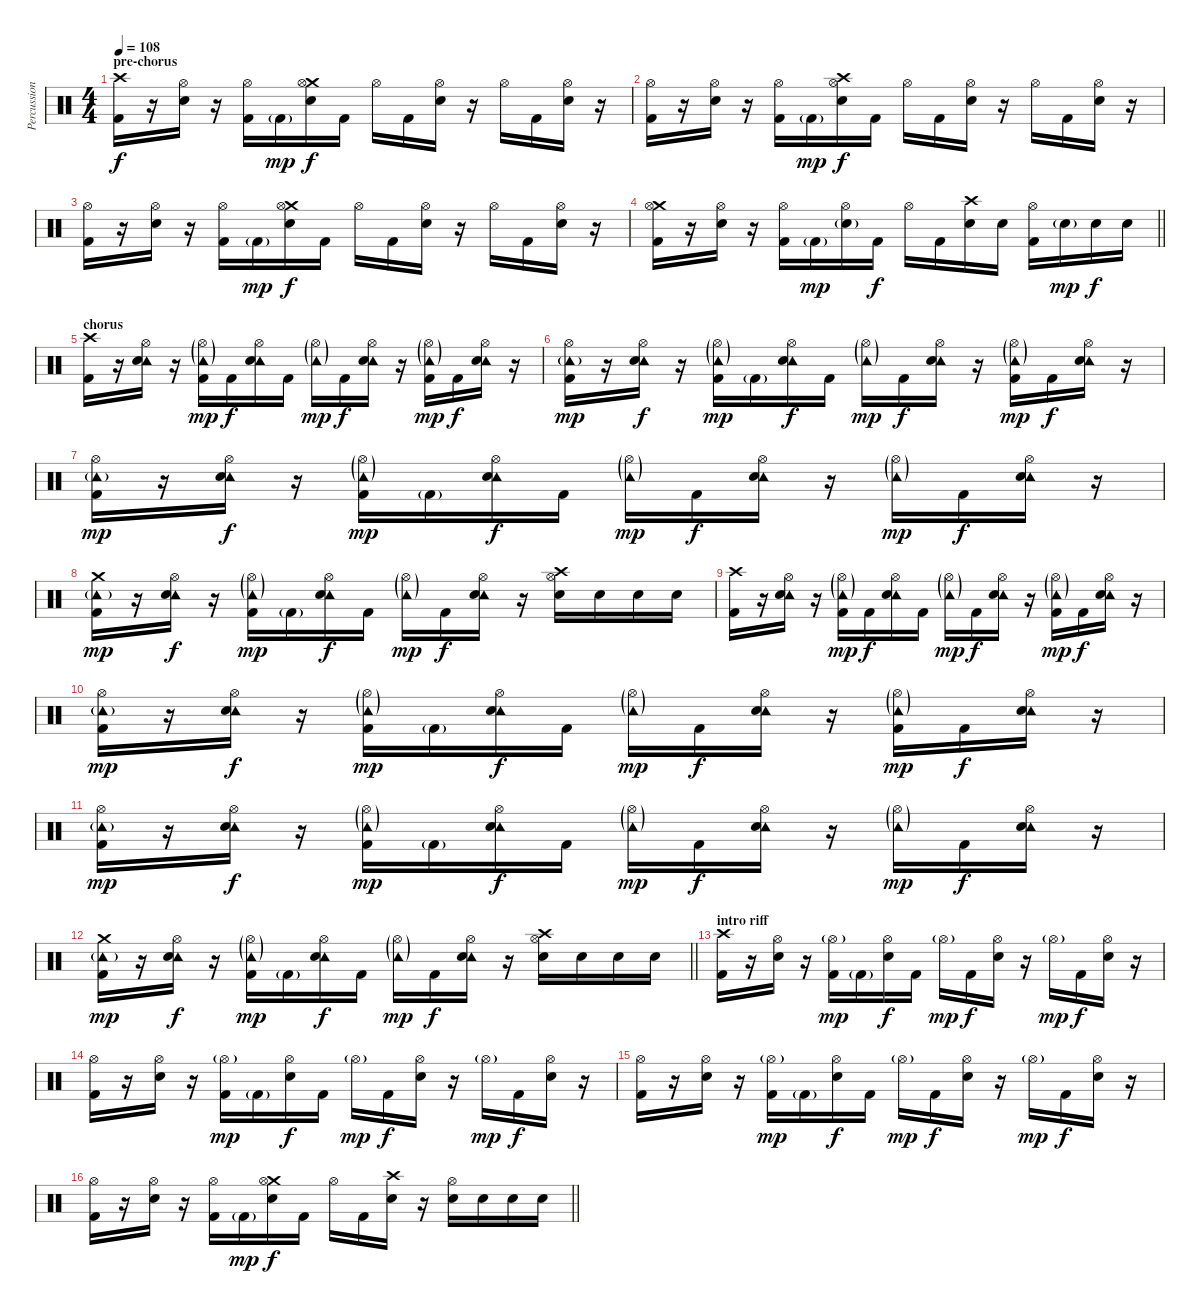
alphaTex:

\track ("Percussion" "Percussion") {instrument percussion}
\staff {score}
\articulation defaults
\ts (4 4)
\section ("" "pre-chorus")
\tempo 108
\clef neutral
\ks c
("Crash high (hit)" "Kick (hit) 2").16{dy f} r.16 ("Hi-Hat (open)" "Electric Snare (hit)").16 r.16 ("Hi-Hat (open)" "Kick (hit) 2").16 "Kick (hit) 2"{g}.16{dy mp} ("Crash medium (hit)" "Hi-Hat (open)" "Electric Snare (hit)").16{dy f} "Kick (hit) 2".16 "Hi-Hat (open)".16 "Kick (hit) 2".16 ("Hi-Hat (open)" "Electric Snare (hit)").16 r.16 "Hi-Hat (open)".16 "Kick (hit) 2".16 ("Hi-Hat (open)" "Electric Snare (hit)").16 r.16 |
("Hi-Hat (open)" "Kick (hit) 2").16 r.16 ("Hi-Hat (open)" "Electric Snare (hit)").16 r.16 ("Hi-Hat (open)" "Kick (hit) 2").16 "Kick (hit) 2"{g}.16{dy mp} ("Crash high (hit)" "Hi-Hat (open)" "Electric Snare (hit)").16{dy f} "Kick (hit) 2".16 "Hi-Hat (open)".16 "Kick (hit) 2".16 ("Hi-Hat (open)" "Electric Snare (hit)").16 r.16 "Hi-Hat (open)".16 "Kick (hit) 2".16 ("Hi-Hat (open)" "Electric Snare (hit)").16 r.16 |
("Hi-Hat (open)" "Kick (hit) 2").16 r.16 ("Hi-Hat (open)" "Electric Snare (hit)").16 r.16 ("Hi-Hat (open)" "Kick (hit) 2").16 "Kick (hit) 2"{g}.16{dy mp} ("Crash medium (hit)" "Hi-Hat (open)" "Electric Snare (hit)").16{dy f} "Kick (hit) 2".16 "Hi-Hat (open)".16 "Kick (hit) 2".16 ("Hi-Hat (open)" "Electric Snare (hit)").16 r.16 "Hi-Hat (open)".16 "Kick (hit) 2".16 ("Hi-Hat (open)" "Electric Snare (hit)").16 r.16 |
\barLineRight lightlight
("Crash medium (hit)" "Hi-Hat (open)" "Kick (hit) 2").16 r.16 ("Hi-Hat (open)" "Electric Snare (hit)").16 r.16 ("Hi-Hat (open)" "Kick (hit) 2").16 "Kick (hit) 2"{g}.16{dy mp} ("Hi-Hat (open)" "Electric Snare (hit)"{g}).16 "Kick (hit) 2".16{dy f} "Hi-Hat (open)".16 "Kick (hit) 2".16 ("Crash high (hit)" "Electric Snare (hit)").16 "Electric Snare (hit)".16 ("Hi-Hat (open)" "Kick (hit) 2").16 "Electric Snare (hit)"{g}.16{dy mp} "Electric Snare (hit)".16{dy f} "Electric Snare (hit)".16 |
\section ("" "chorus")
("Crash high (hit)" "Kick (hit) 2").16 r.16 ("Tambourine (hit)" "Hi-Hat (open)" "Electric Snare (hit)").16 r.16 ("Tambourine (hit)"{g} "Hi-Hat (open)"{g} "Kick (hit) 2").16{dy mp} "Kick (hit) 2".16{dy f} ("Tambourine (hit)" "Hi-Hat (open)" "Electric Snare (hit)").16 "Kick (hit) 2".16 ("Tambourine (hit)"{g} "Hi-Hat (open)"{g}).16{dy mp} "Kick (hit) 2".16{dy f} ("Tambourine (hit)" "Hi-Hat (open)" "Electric Snare (hit)").16 r.16 ("Tambourine (hit)"{g} "Hi-Hat (open)"{g} "Kick (hit) 2").16{dy mp} "Kick (hit) 2".16{dy f} ("Tambourine (hit)" "Hi-Hat (open)" "Electric Snare (hit)").16 r.16 |
("Tambourine (hit)"{g} "Hi-Hat (open)" "Kick (hit) 2").16{dy mp} r.16 ("Tambourine (hit)" "Hi-Hat (open)" "Electric Snare (hit)").16{dy f} r.16 ("Tambourine (hit)"{g} "Hi-Hat (open)"{g} "Kick (hit) 2").16{dy mp} "Kick (hit) 2"{g}.16 ("Tambourine (hit)" "Hi-Hat (open)" "Electric Snare (hit)").16{dy f} "Kick (hit) 2".16 ("Tambourine (hit)"{g} "Hi-Hat (open)"{g}).16{dy mp} "Kick (hit) 2".16{dy f} ("Tambourine (hit)" "Hi-Hat (open)" "Electric Snare (hit)").16 r.16 ("Tambourine (hit)"{g} "Hi-Hat (open)"{g} "Kick (hit) 2").16{dy mp} "Kick (hit) 2".16{dy f} ("Tambourine (hit)" "Hi-Hat (open)" "Electric Snare (hit)").16 r.16 |
("Tambourine (hit)"{g} "Hi-Hat (open)" "Kick (hit) 2").16{dy mp} r.16 ("Tambourine (hit)" "Hi-Hat (open)" "Electric Snare (hit)").16{dy f} r.16 ("Tambourine (hit)"{g} "Hi-Hat (open)"{g} "Kick (hit) 2").16{dy mp} "Kick (hit) 2"{g}.16 ("Tambourine (hit)" "Hi-Hat (open)" "Electric Snare (hit)").16{dy f} "Kick (hit) 2".16 ("Tambourine (hit)"{g} "Hi-Hat (open)"{g}).16{dy mp} "Kick (hit) 2".16{dy f} ("Tambourine (hit)" "Hi-Hat (open)" "Electric Snare (hit)").16 r.16 ("Tambourine (hit)"{g} "Hi-Hat (open)"{g}).16{dy mp} "Kick (hit) 2".16{dy f} ("Tambourine (hit)" "Hi-Hat (open)" "Electric Snare (hit)").16 r.16 |
("Crash medium (hit)" "Tambourine (hit)"{g} "Kick (hit) 2").16{dy mp} r.16 ("Tambourine (hit)" "Hi-Hat (open)" "Electric Snare (hit)").16{dy f} r.16 ("Tambourine (hit)"{g} "Hi-Hat (open)"{g} "Kick (hit) 2").16{dy mp} "Kick (hit) 2"{g}.16 ("Tambourine (hit)" "Hi-Hat (open)" "Electric Snare (hit)").16{dy f} "Kick (hit) 2".16 ("Tambourine (hit)"{g} "Hi-Hat (open)"{g}).16{dy mp} "Kick (hit) 2".16{dy f} ("Tambourine (hit)" "Hi-Hat (open)" "Electric Snare (hit)").16 r.16 ("Crash high (hit)" "Hi-Hat (open)" "Electric Snare (hit)").16 "Electric Snare (hit)".16 "Electric Snare (hit)".16 "Electric Snare (hit)".16 |
("Crash high (hit)" "Kick (hit) 2").16 r.16 ("Tambourine (hit)" "Hi-Hat (open)" "Electric Snare (hit)").16 r.16 ("Tambourine (hit)"{g} "Hi-Hat (open)"{g} "Kick (hit) 2").16{dy mp} "Kick (hit) 2".16{dy f} ("Tambourine (hit)" "Hi-Hat (open)" "Electric Snare (hit)").16 "Kick (hit) 2".16 ("Tambourine (hit)"{g} "Hi-Hat (open)"{g}).16{dy mp} "Kick (hit) 2".16{dy f} ("Tambourine (hit)" "Hi-Hat (open)" "Electric Snare (hit)").16 r.16 ("Tambourine (hit)"{g} "Hi-Hat (open)"{g} "Kick (hit) 2").16{dy mp} "Kick (hit) 2".16{dy f} ("Tambourine (hit)" "Hi-Hat (open)" "Electric Snare (hit)").16 r.16 |
("Tambourine (hit)"{g} "Hi-Hat (open)" "Kick (hit) 2").16{dy mp} r.16 ("Tambourine (hit)" "Hi-Hat (open)" "Electric Snare (hit)").16{dy f} r.16 ("Tambourine (hit)"{g} "Hi-Hat (open)"{g} "Kick (hit) 2").16{dy mp} "Kick (hit) 2"{g}.16 ("Tambourine (hit)" "Hi-Hat (open)" "Electric Snare (hit)").16{dy f} "Kick (hit) 2".16 ("Tambourine (hit)"{g} "Hi-Hat (open)"{g}).16{dy mp} "Kick (hit) 2".16{dy f} ("Tambourine (hit)" "Hi-Hat (open)" "Electric Snare (hit)").16 r.16 ("Tambourine (hit)"{g} "Hi-Hat (open)"{g} "Kick (hit) 2").16{dy mp} "Kick (hit) 2".16{dy f} ("Tambourine (hit)" "Hi-Hat (open)" "Electric Snare (hit)").16 r.16 |
("Tambourine (hit)"{g} "Hi-Hat (open)" "Kick (hit) 2").16{dy mp} r.16 ("Tambourine (hit)" "Hi-Hat (open)" "Electric Snare (hit)").16{dy f} r.16 ("Tambourine (hit)"{g} "Hi-Hat (open)"{g} "Kick (hit) 2").16{dy mp} "Kick (hit) 2"{g}.16 ("Tambourine (hit)" "Hi-Hat (open)" "Electric Snare (hit)").16{dy f} "Kick (hit) 2".16 ("Tambourine (hit)"{g} "Hi-Hat (open)"{g}).16{dy mp} "Kick (hit) 2".16{dy f} ("Tambourine (hit)" "Hi-Hat (open)" "Electric Snare (hit)").16 r.16 ("Tambourine (hit)"{g} "Hi-Hat (open)"{g}).16{dy mp} "Kick (hit) 2".16{dy f} ("Tambourine (hit)" "Hi-Hat (open)" "Electric Snare (hit)").16 r.16 |
\barLineRight lightlight
("Crash medium (hit)" "Tambourine (hit)"{g} "Kick (hit) 2").16{dy mp} r.16 ("Tambourine (hit)" "Hi-Hat (open)" "Electric Snare (hit)").16{dy f} r.16 ("Tambourine (hit)"{g} "Hi-Hat (open)"{g} "Kick (hit) 2").16{dy mp} "Kick (hit) 2"{g}.16 ("Tambourine (hit)" "Hi-Hat (open)" "Electric Snare (hit)").16{dy f} "Kick (hit) 2".16 ("Tambourine (hit)"{g} "Hi-Hat (open)"{g}).16{dy mp} "Kick (hit) 2".16{dy f} ("Tambourine (hit)" "Hi-Hat (open)" "Electric Snare (hit)").16 r.16 ("Crash high (hit)" "Hi-Hat (open)" "Electric Snare (hit)").16 "Electric Snare (hit)".16 "Electric Snare (hit)".16 "Electric Snare (hit)".16 |
\section ("" "intro riff")
("Crash high (hit)" "Kick (hit) 2").16 r.16 ("Hi-Hat (open)" "Electric Snare (hit)").16 r.16 ("Hi-Hat (open)"{g} "Kick (hit) 2").16{dy mp} "Kick (hit) 2"{g}.16 ("Hi-Hat (open)" "Electric Snare (hit)").16{dy f} "Kick (hit) 2".16 "Hi-Hat (open)"{g}.16{dy mp} "Kick (hit) 2".16{dy f} ("Hi-Hat (open)" "Electric Snare (hit)").16 r.16 "Hi-Hat (open)"{g}.16{dy mp} "Kick (hit) 2".16{dy f} ("Hi-Hat (open)" "Electric Snare (hit)").16 r.16 |
("Hi-Hat (open)" "Kick (hit) 2").16 r.16 ("Hi-Hat (open)" "Electric Snare (hit)").16 r.16 ("Hi-Hat (open)"{g} "Kick (hit) 2").16{dy mp} "Kick (hit) 2"{g}.16 ("Hi-Hat (open)" "Electric Snare (hit)").16{dy f} "Kick (hit) 2".16 "Hi-Hat (open)"{g}.16{dy mp} "Kick (hit) 2".16{dy f} ("Hi-Hat (open)" "Electric Snare (hit)").16 r.16 "Hi-Hat (open)"{g}.16{dy mp} "Kick (hit) 2".16{dy f} ("Hi-Hat (open)" "Electric Snare (hit)").16 r.16 |
("Hi-Hat (open)" "Kick (hit) 2").16 r.16 ("Hi-Hat (open)" "Electric Snare (hit)").16 r.16 ("Hi-Hat (open)"{g} "Kick (hit) 2").16{dy mp} "Kick (hit) 2"{g}.16 ("Hi-Hat (open)" "Electric Snare (hit)").16{dy f} "Kick (hit) 2".16 "Hi-Hat (open)"{g}.16{dy mp} "Kick (hit) 2".16{dy f} ("Hi-Hat (open)" "Electric Snare (hit)").16 r.16 "Hi-Hat (open)"{g}.16{dy mp} "Kick (hit) 2".16{dy f} ("Hi-Hat (open)" "Electric Snare (hit)").16 r.16 |
\barLineRight lightlight
("Hi-Hat (open)" "Kick (hit) 2").16 r.16 ("Hi-Hat (open)" "Electric Snare (hit)").16 r.16 ("Hi-Hat (open)" "Kick (hit) 2").16 "Kick (hit) 2"{g}.16{dy mp} ("Crash medium (hit)" "Hi-Hat (open)" "Electric Snare (hit)").16{dy f} "Kick (hit) 2".16 "Hi-Hat (open)".16 "Kick (hit) 2".16 ("Crash high (hit)" "Electric Snare (hit)").16 r.16 ("Hi-Hat (open)" "Electric Snare (hit)").16 "Electric Snare (hit)".16 "Electric Snare (hit)".16 "Electric Snare (hit)".16
